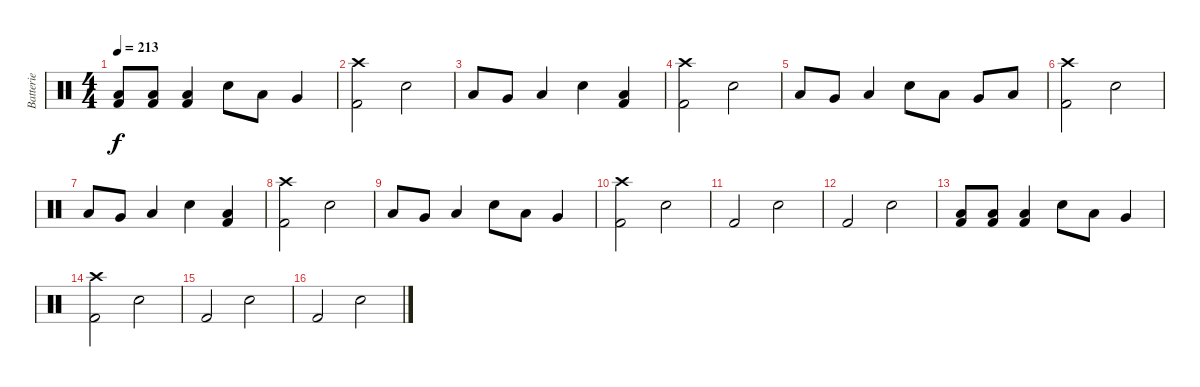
\track ("Batterie" "Batterie") {instrument percussion}
\staff {score}
\articulation defaults
\ts (4 4)
\tempo 213
\clef neutral
\ks c
("Low Floor Tom (hit)" "Kick (hit) 2").8{dy f} ("Low Floor Tom (hit)" "Kick (hit) 2").8 ("Low Floor Tom (hit)" "Kick (hit) 2").4 "Electric Snare (hit)".8 "Low Tom (hit)".8 "Very Low Tom (hit)".4 |
("Crash high (hit)" "Kick (hit) 2").2 "Electric Snare (hit)".2 |
"Low Tom (hit)".8 "Very Low Tom (hit)".8 "Low Floor Tom (hit)".4 "Electric Snare (hit)".4 ("Kick (hit) 2" "Low Floor Tom (hit)").4 |
("Crash high (hit)" "Kick (hit) 2").2 "Electric Snare (hit)".2 |
"Low Tom (hit)".8 "Very Low Tom (hit)".8 "Low Floor Tom (hit)".4 "Electric Snare (hit)".8 "Low Tom (hit)".8 "Very Low Tom (hit)".8 "Low Floor Tom (hit)".8 |
("Crash high (hit)" "Kick (hit) 2").2 "Electric Snare (hit)".2 |
"Low Tom (hit)".8 "Very Low Tom (hit)".8 "Low Floor Tom (hit)".4 "Electric Snare (hit)".4 ("Kick (hit) 2" "Low Floor Tom (hit)").4 |
("Crash high (hit)" "Kick (hit) 2").2 "Electric Snare (hit)".2 |
"Low Tom (hit)".8 "Very Low Tom (hit)".8 "Low Floor Tom (hit)".4 "Electric Snare (hit)".8 "Low Tom (hit)".8 "Very Low Tom (hit)".4 |
("Crash high (hit)" "Kick (hit) 2").2 "Electric Snare (hit)".2 |
"Kick (hit) 2".2 "Electric Snare (hit)".2 |
"Kick (hit) 2".2 "Electric Snare (hit)".2 |
("Low Floor Tom (hit)" "Kick (hit) 2").8 ("Low Floor Tom (hit)" "Kick (hit) 2").8 ("Low Floor Tom (hit)" "Kick (hit) 2").4 "Electric Snare (hit)".8 "Low Tom (hit)".8 "Very Low Tom (hit)".4 |
("Crash high (hit)" "Kick (hit) 2").2 "Electric Snare (hit)".2 |
"Kick (hit) 2".2 "Electric Snare (hit)".2 |
"Kick (hit) 2".2 "Electric Snare (hit)".2
